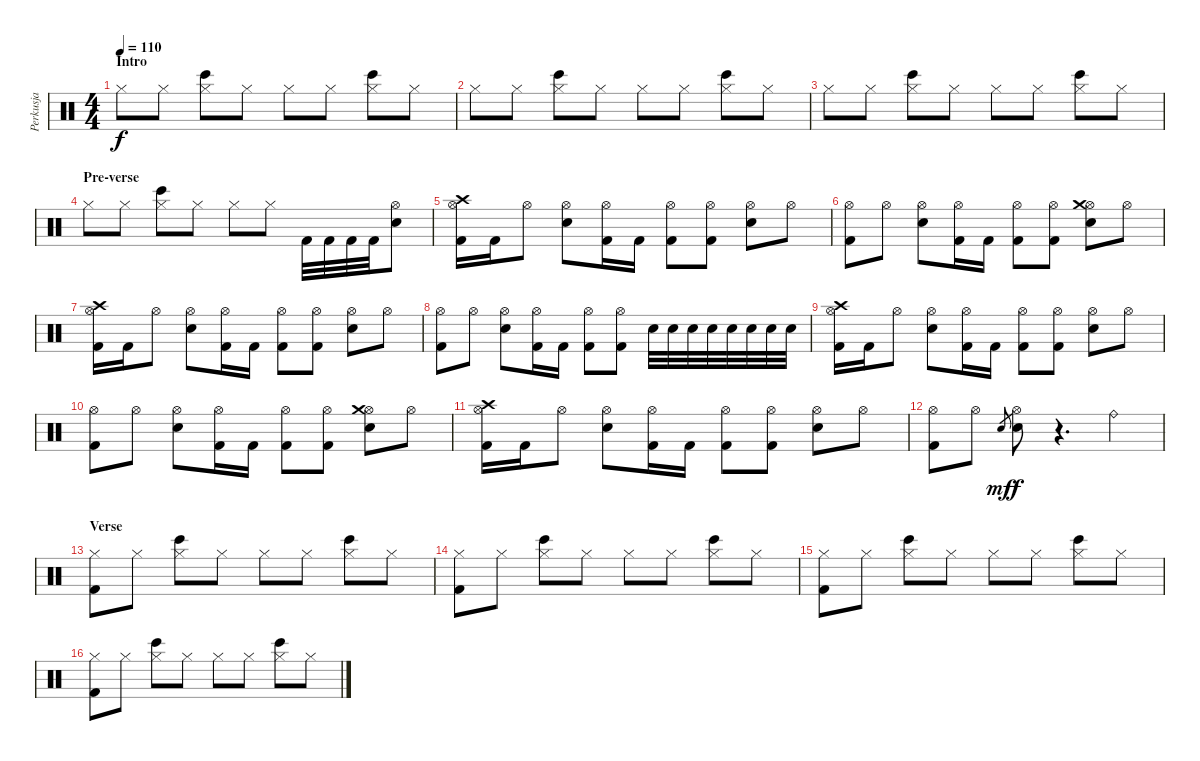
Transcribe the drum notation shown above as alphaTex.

\track ("Perkusja" "Perkusja") {instrument percussion}
\staff {score}
\articulation defaults
\ts (4 4)
\section ("" "Intro")
\tempo 110
\clef neutral
\ks c "Hi-Hat (closed)".8{dy f volume 7} "Hi-Hat (closed)".8
("Hi-Hat (closed)" "Bongo High (hit)").8 "Hi-Hat (closed)".8 "Hi-Hat (closed)".8 "Hi-Hat (closed)".8 ("Hi-Hat (closed)" "Bongo High (hit)").8 "Hi-Hat (closed)".8 |
"Hi-Hat (closed)".8 "Hi-Hat (closed)".8 ("Hi-Hat (closed)" "Bongo High (hit)").8 "Hi-Hat (closed)".8 "Hi-Hat (closed)".8 "Hi-Hat (closed)".8 ("Hi-Hat (closed)" "Bongo High (hit)").8 "Hi-Hat (closed)".8 |
"Hi-Hat (closed)".8 "Hi-Hat (closed)".8 ("Hi-Hat (closed)" "Bongo High (hit)").8 "Hi-Hat (closed)".8 "Hi-Hat (closed)".8 "Hi-Hat (closed)".8 ("Hi-Hat (closed)" "Bongo High (hit)").8 "Hi-Hat (closed)".8 |
\section ("" "Pre-verse")
"Hi-Hat (closed)".8 "Hi-Hat (closed)".8 ("Hi-Hat (closed)" "Bongo High (hit)").8 "Hi-Hat (closed)".8 "Hi-Hat (closed)".8 "Hi-Hat (closed)".8 "Kick (hit) 2".32{volume 16} "Kick (hit) 2".32 "Kick (hit) 2".32 "Kick (hit) 2".32 ("Snare (hit) 2" "Hi-Hat (open)").8 |
("Hi-Hat (open)" "Kick (hit) 2" "Crash high (hit)").16 "Kick (hit) 2".16 "Hi-Hat (open)".8 ("Hi-Hat (open)" "Snare (hit) 2").8 ("Hi-Hat (open)" "Kick (hit) 2").16 "Kick (hit) 2".16 ("Hi-Hat (open)" "Kick (hit) 2").8 ("Hi-Hat (open)" "Kick (hit) 2").8 ("Hi-Hat (open)" "Snare (hit) 2").8 "Hi-Hat (open)".8 |
("Hi-Hat (open)" "Kick (hit) 2").8 "Hi-Hat (open)".8 ("Hi-Hat (open)" "Snare (hit) 2").8 ("Hi-Hat (open)" "Kick (hit) 2").16 "Kick (hit) 2".16 ("Hi-Hat (open)" "Kick (hit) 2").8 ("Hi-Hat (open)" "Kick (hit) 2").8 ("Hi-Hat (open)" "Snare (hit) 2" "Crash medium (hit)").8 "Hi-Hat (open)".8 |
("Hi-Hat (open)" "Kick (hit) 2" "Crash high (hit)").16 "Kick (hit) 2".16 "Hi-Hat (open)".8 ("Hi-Hat (open)" "Snare (hit) 2").8 ("Hi-Hat (open)" "Kick (hit) 2").16 "Kick (hit) 2".16 ("Hi-Hat (open)" "Kick (hit) 2").8 ("Hi-Hat (open)" "Kick (hit) 2").8 ("Hi-Hat (open)" "Snare (hit) 2").8 "Hi-Hat (open)".8 |
("Hi-Hat (open)" "Kick (hit) 2").8 "Hi-Hat (open)".8 ("Hi-Hat (open)" "Snare (hit) 2").8 ("Hi-Hat (open)" "Kick (hit) 2").16 "Kick (hit) 2".16 ("Hi-Hat (open)" "Kick (hit) 2").8 ("Hi-Hat (open)" "Kick (hit) 2").8 "Snare (hit) 2".32 "Snare (hit) 2".32 "Snare (hit) 2".32 "Snare (hit) 2".32 "Snare (hit) 2".32 "Snare (hit) 2".32 "Snare (hit) 2".32 "Snare (hit) 2".32 |
("Hi-Hat (open)" "Kick (hit) 2" "Crash high (hit)").16 "Kick (hit) 2".16 "Hi-Hat (open)".8 ("Hi-Hat (open)" "Snare (hit) 2").8 ("Hi-Hat (open)" "Kick (hit) 2").16 "Kick (hit) 2".16 ("Hi-Hat (open)" "Kick (hit) 2").8 ("Hi-Hat (open)" "Kick (hit) 2").8 ("Hi-Hat (open)" "Snare (hit) 2").8 "Hi-Hat (open)".8 |
("Hi-Hat (open)" "Kick (hit) 2").8 "Hi-Hat (open)".8 ("Hi-Hat (open)" "Snare (hit) 2").8 ("Hi-Hat (open)" "Kick (hit) 2").16 "Kick (hit) 2".16 ("Hi-Hat (open)" "Kick (hit) 2").8 ("Hi-Hat (open)" "Kick (hit) 2").8 ("Hi-Hat (open)" "Snare (hit) 2" "Crash medium (hit)").8 "Hi-Hat (open)".8 |
("Hi-Hat (open)" "Kick (hit) 2" "Crash high (hit)").16 "Kick (hit) 2".16 "Hi-Hat (open)".8 ("Hi-Hat (open)" "Snare (hit) 2").8 ("Hi-Hat (open)" "Kick (hit) 2").16 "Kick (hit) 2".16 ("Hi-Hat (open)" "Kick (hit) 2").8 ("Hi-Hat (open)" "Kick (hit) 2").8 ("Hi-Hat (open)" "Snare (hit) 2").8 "Hi-Hat (open)".8 |
("Hi-Hat (open)" "Kick (hit) 2").8 "Hi-Hat (open)".8 "Snare (hit) 2"{h}.8{gr dy mf} ("Hi-Hat (open)" "Snare (hit) 2").8{dy f} r.4{d} "Ride (bell)".4 |
\section ("" "Verse")
("Hi-Hat (closed)" "Kick (hit) 2").8 "Hi-Hat (closed)".8 ("Hi-Hat (closed)" "Bongo High (hit)").8 "Hi-Hat (closed)".8 "Hi-Hat (closed)".8 "Hi-Hat (closed)".8 ("Hi-Hat (closed)" "Bongo High (hit)").8 "Hi-Hat (closed)".8 |
("Hi-Hat (closed)" "Kick (hit) 2").8 "Hi-Hat (closed)".8 ("Hi-Hat (closed)" "Bongo High (hit)").8 "Hi-Hat (closed)".8 "Hi-Hat (closed)".8 "Hi-Hat (closed)".8 ("Hi-Hat (closed)" "Bongo High (hit)").8 "Hi-Hat (closed)".8 |
("Hi-Hat (closed)" "Kick (hit) 2").8 "Hi-Hat (closed)".8 ("Hi-Hat (closed)" "Bongo High (hit)").8 "Hi-Hat (closed)".8 "Hi-Hat (closed)".8 "Hi-Hat (closed)".8 ("Hi-Hat (closed)" "Bongo High (hit)").8 "Hi-Hat (closed)".8 |
("Hi-Hat (closed)" "Kick (hit) 2").8 "Hi-Hat (closed)".8 ("Hi-Hat (closed)" "Bongo High (hit)").8 "Hi-Hat (closed)".8 "Hi-Hat (closed)".8 "Hi-Hat (closed)".8 ("Hi-Hat (closed)" "Bongo High (hit)").8 "Hi-Hat (closed)".8
